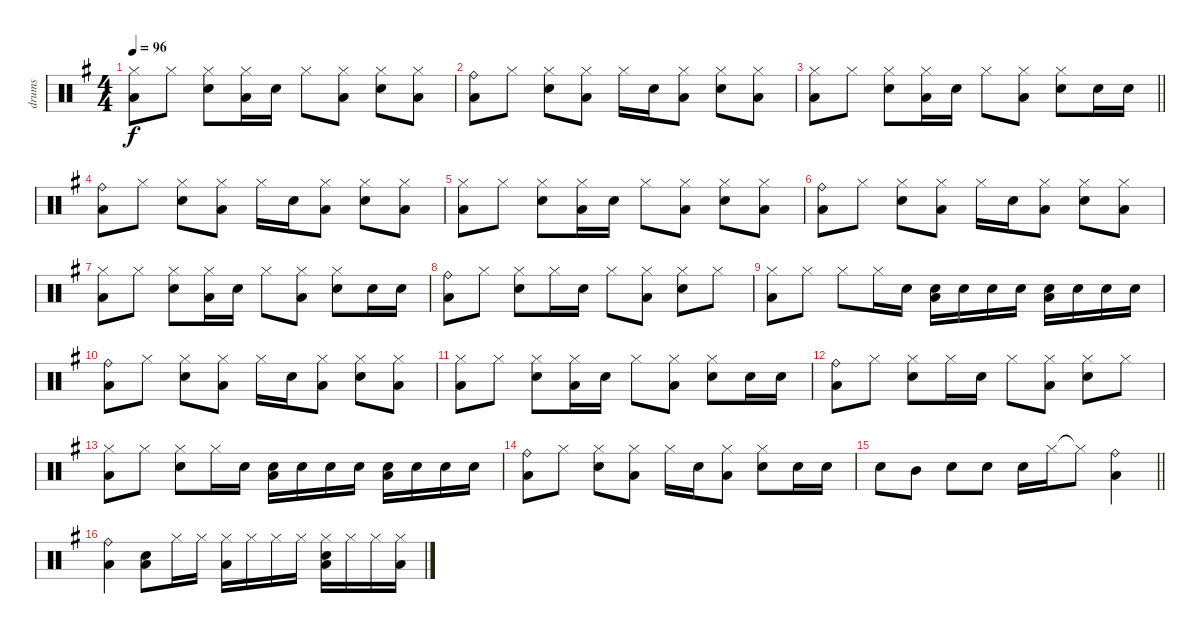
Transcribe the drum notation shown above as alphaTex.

\track ("drums" "drums") {instrument percussion}
\staff {score}
\articulation defaults
\ts (4 4)
\tempo 96
\clef neutral
\ks g
("Hi-Hat (closed)" "Low Floor Tom (hit)").8{dy f} "Hi-Hat (closed)".8 ("Hi-Hat (closed)" "Electric Snare (hit)").8 ("Hi-Hat (closed)" "Low Floor Tom (hit)").16 "Electric Snare (hit)".16 "Hi-Hat (closed)".8 ("Hi-Hat (closed)" "Low Floor Tom (hit)").8 ("Hi-Hat (closed)" "Electric Snare (hit)").8 ("Hi-Hat (closed)" "Low Floor Tom (hit)").8 |
("Ride (bell)" "Low Floor Tom (hit)").8 "Hi-Hat (closed)".8 ("Hi-Hat (closed)" "Electric Snare (hit)").8 ("Hi-Hat (closed)" "Low Floor Tom (hit)").8 "Hi-Hat (closed)".16 "Electric Snare (hit)".16 ("Hi-Hat (closed)" "Low Floor Tom (hit)").8 ("Hi-Hat (closed)" "Electric Snare (hit)").8 ("Hi-Hat (closed)" "Low Floor Tom (hit)").8 |
\barLineRight lightlight
("Hi-Hat (closed)" "Low Floor Tom (hit)").8 "Hi-Hat (closed)".8 ("Hi-Hat (closed)" "Electric Snare (hit)").8 ("Hi-Hat (closed)" "Low Floor Tom (hit)").16 "Electric Snare (hit)".16 "Hi-Hat (closed)".8 ("Hi-Hat (closed)" "Low Floor Tom (hit)").8 ("Hi-Hat (closed)" "Electric Snare (hit)").8 "Electric Snare (hit)".16 "Electric Snare (hit)".16 |
("Ride (bell)" "Low Floor Tom (hit)").8 "Hi-Hat (closed)".8 ("Hi-Hat (closed)" "Electric Snare (hit)").8 ("Hi-Hat (closed)" "Low Floor Tom (hit)").8 "Hi-Hat (closed)".16 "Electric Snare (hit)".16 ("Hi-Hat (closed)" "Low Floor Tom (hit)").8 ("Hi-Hat (closed)" "Electric Snare (hit)").8 ("Hi-Hat (closed)" "Low Floor Tom (hit)").8 |
("Hi-Hat (closed)" "Low Floor Tom (hit)").8 "Hi-Hat (closed)".8 ("Hi-Hat (closed)" "Electric Snare (hit)").8 ("Hi-Hat (closed)" "Low Floor Tom (hit)").16 "Electric Snare (hit)".16 "Hi-Hat (closed)".8 ("Hi-Hat (closed)" "Low Floor Tom (hit)").8 ("Hi-Hat (closed)" "Electric Snare (hit)").8 ("Hi-Hat (closed)" "Low Floor Tom (hit)").8 |
("Ride (bell)" "Low Floor Tom (hit)").8 "Hi-Hat (closed)".8 ("Hi-Hat (closed)" "Electric Snare (hit)").8 ("Hi-Hat (closed)" "Low Floor Tom (hit)").8 "Hi-Hat (closed)".16 "Electric Snare (hit)".16 ("Hi-Hat (closed)" "Low Floor Tom (hit)").8 ("Hi-Hat (closed)" "Electric Snare (hit)").8 ("Hi-Hat (closed)" "Low Floor Tom (hit)").8 |
("Hi-Hat (closed)" "Low Floor Tom (hit)").8 "Hi-Hat (closed)".8 ("Hi-Hat (closed)" "Electric Snare (hit)").8 ("Hi-Hat (closed)" "Low Floor Tom (hit)").16 "Electric Snare (hit)".16 "Hi-Hat (closed)".8 ("Hi-Hat (closed)" "Low Floor Tom (hit)").8 ("Hi-Hat (closed)" "Electric Snare (hit)").8 "Electric Snare (hit)".16 "Electric Snare (hit)".16 |
("Ride (bell)" "Low Floor Tom (hit)").8 "Hi-Hat (closed)".8 ("Hi-Hat (closed)" "Electric Snare (hit)").8 "Hi-Hat (closed)".16 "Electric Snare (hit)".16 "Hi-Hat (closed)".8 ("Hi-Hat (closed)" "Low Floor Tom (hit)").8 ("Hi-Hat (closed)" "Electric Snare (hit)").8 "Hi-Hat (closed)".8 |
("Hi-Hat (closed)" "Low Floor Tom (hit)").8 "Hi-Hat (closed)".8 "Hi-Hat (closed)".8 "Hi-Hat (closed)".16 "Electric Snare (hit)".16 ("Electric Snare (hit)" "Low Floor Tom (hit)").16 "Electric Snare (hit)".16 "Electric Snare (hit)".16 "Electric Snare (hit)".16 ("Electric Snare (hit)" "Low Floor Tom (hit)").16 "Electric Snare (hit)".16 "Electric Snare (hit)".16 "Electric Snare (hit)".16 |
("Ride (bell)" "Low Floor Tom (hit)").8 "Hi-Hat (closed)".8 ("Hi-Hat (closed)" "Electric Snare (hit)").8 ("Hi-Hat (closed)" "Low Floor Tom (hit)").8 "Hi-Hat (closed)".16 "Electric Snare (hit)".16 ("Hi-Hat (closed)" "Low Floor Tom (hit)").8 ("Hi-Hat (closed)" "Electric Snare (hit)").8 ("Hi-Hat (closed)" "Low Floor Tom (hit)").8 |
("Hi-Hat (closed)" "Low Floor Tom (hit)").8 "Hi-Hat (closed)".8 ("Hi-Hat (closed)" "Electric Snare (hit)").8 ("Hi-Hat (closed)" "Low Floor Tom (hit)").16 "Electric Snare (hit)".16 "Hi-Hat (closed)".8 ("Hi-Hat (closed)" "Low Floor Tom (hit)").8 ("Hi-Hat (closed)" "Electric Snare (hit)").8 "Electric Snare (hit)".16 "Electric Snare (hit)".16 |
("Ride (bell)" "Low Floor Tom (hit)").8 "Hi-Hat (closed)".8 ("Hi-Hat (closed)" "Electric Snare (hit)").8 "Hi-Hat (closed)".16 "Electric Snare (hit)".16 "Hi-Hat (closed)".8 ("Hi-Hat (closed)" "Low Floor Tom (hit)").8 ("Hi-Hat (closed)" "Electric Snare (hit)").8 "Hi-Hat (closed)".8 |
("Hi-Hat (closed)" "Low Floor Tom (hit)").8 "Hi-Hat (closed)".8 ("Hi-Hat (closed)" "Electric Snare (hit)").8 "Hi-Hat (closed)".16 "Electric Snare (hit)".16 ("Electric Snare (hit)" "Low Floor Tom (hit)").16 "Electric Snare (hit)".16 "Electric Snare (hit)".16 "Electric Snare (hit)".16 ("Electric Snare (hit)" "Low Floor Tom (hit)").16 "Electric Snare (hit)".16 "Electric Snare (hit)".16 "Electric Snare (hit)".16 |
("Ride (bell)" "Low Floor Tom (hit)").8 "Hi-Hat (closed)".8 ("Hi-Hat (closed)" "Electric Snare (hit)").8 ("Hi-Hat (closed)" "Low Floor Tom (hit)").8 "Hi-Hat (closed)".16 "Electric Snare (hit)".16 ("Hi-Hat (closed)" "Low Floor Tom (hit)").8 ("Hi-Hat (closed)" "Electric Snare (hit)").8 "Electric Snare (hit)".16 "Electric Snare (hit)".16 |
\barLineRight lightlight "Electric Snare (hit)".8 "Mid Tom (hit)".8 "Snare (hit) 2".8 "Electric Snare (hit)".8 "Electric Snare (hit)".16 "Hi-Hat (closed)".16 "Hi-Hat (closed)"{t}.8
("Ride (bell)" "Low Floor Tom (hit)").4 |
("Ride (bell)" "Low Floor Tom (hit)").4 ("Electric Snare (hit)" "Low Floor Tom (hit)").8 "Hi-Hat (closed)".16 "Hi-Hat (closed)".16 ("Hi-Hat (closed)" "Low Floor Tom (hit)").16 "Hi-Hat (closed)".16 "Hi-Hat (closed)".16 "Hi-Hat (closed)".16 ("Hi-Hat (closed)" "Electric Snare (hit)" "Low Floor Tom (hit)").16 "Hi-Hat (closed)".16 "Hi-Hat (closed)".16 ("Hi-Hat (closed)" "Low Floor Tom (hit)").16
